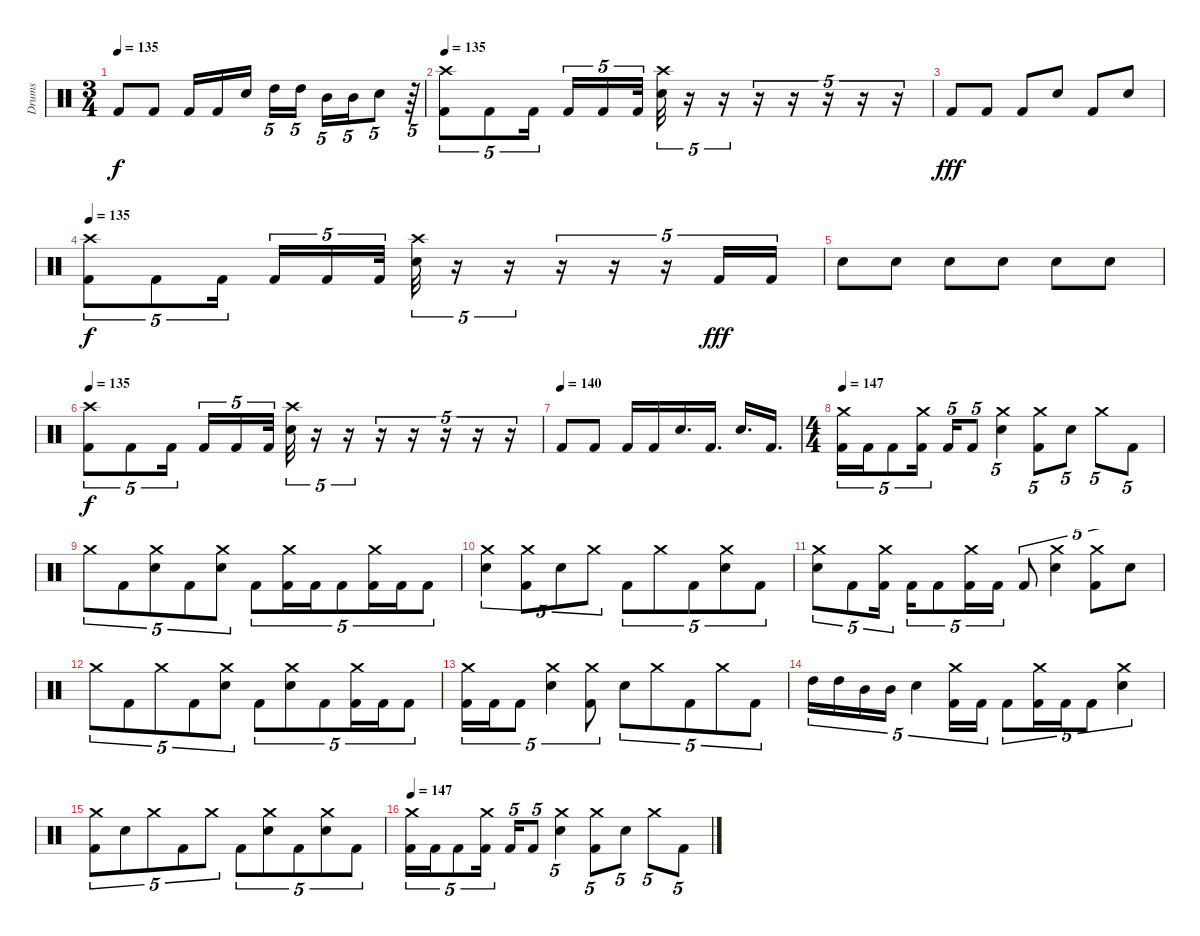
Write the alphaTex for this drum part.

\track ("Drums" "Drums") {instrument percussion}
\staff {score}
\articulation defaults
\ts (3 4)
\tempo 135
\clef neutral
\ks c "Kick (hit) 2".8{dy f} "Kick (hit) 2".8 "Kick (hit) 2".16 "Kick (hit) 2".16 "Electric Snare (hit)".16{beam splitsecondary} "High Tom (hit)".16{tu (5 4)} "High Tom (hit)".16{tu (5 4)} "Mid Tom (hit)".16{tu (5 4)} "Mid Tom (hit)".16{tu (5 4)} "Electric Snare (hit)".8{tu (5 4)}
r.64{tu (5 4)} |
\tempo 135
("Crash high (hit)" "Kick (hit) 2").8{tu (5 4)} "Kick (hit) 2".8{tu (5 4)} "Kick (hit) 2".16{tu (5 4)} "Kick (hit) 2".16{tu (5 4)} "Kick (hit) 2".16{tu (5 4)} "Kick (hit) 2".32{tu (5 4)} ("Crash high (hit)" "Electric Snare (hit)").32{tu (5 4)} r.16{tu (5 4)} r.16{tu (5 4)} r.16{tu (5 4)} r.16{tu (5 4)} r.16{tu (5 4)} r.16{tu (5 4)} r.16{tu (5 4)} |
"Kick (hit) 2".8{dy fff} "Kick (hit) 2".8 "Kick (hit) 2".8 "Electric Snare (hit)".8 "Kick (hit) 2".8 "Electric Snare (hit)".8 |
\tempo 135
("Crash high (hit)" "Kick (hit) 2").8{tu (5 4) dy f} "Kick (hit) 2".8{tu (5 4)} "Kick (hit) 2".16{tu (5 4)} "Kick (hit) 2".16{tu (5 4)} "Kick (hit) 2".16{tu (5 4)} "Kick (hit) 2".32{tu (5 4)} ("Crash high (hit)" "Electric Snare (hit)").32{tu (5 4)} r.16{tu (5 4)} r.16{tu (5 4)} r.16{tu (5 4)} r.16{tu (5 4)} r.16{tu (5 4)} "Kick (hit) 2".16{tu (5 4) dy fff} "Kick (hit) 2".16{tu (5 4)} |
"Electric Snare (hit)".8 "Electric Snare (hit)".8 "Electric Snare (hit)".8 "Electric Snare (hit)".8 "Electric Snare (hit)".8 "Electric Snare (hit)".8 |
\tempo 135
("Crash high (hit)" "Kick (hit) 2").8{tu (5 4) dy f} "Kick (hit) 2".8{tu (5 4)} "Kick (hit) 2".16{tu (5 4)} "Kick (hit) 2".16{tu (5 4)} "Kick (hit) 2".16{tu (5 4)} "Kick (hit) 2".32{tu (5 4)} ("Crash high (hit)" "Electric Snare (hit)").32{tu (5 4)} r.16{tu (5 4)} r.16{tu (5 4)} r.16{tu (5 4)} r.16{tu (5 4)} r.16{tu (5 4)} r.16{tu (5 4)} r.16{tu (5 4)} |
\tempo (140)
"Kick (hit) 2".8 "Kick (hit) 2".8 "Kick (hit) 2".16 "Kick (hit) 2".16 "Electric Snare (hit)".16{d} "Kick (hit) 2".16{d} "Electric Snare (hit)".16{d} "Kick (hit) 2".16{d} |
\ts (4 4)
\tempo 147
("Crash medium (hit)" "Kick (hit) 2").16{tu (5 4)} "Kick (hit) 2".16{tu (5 4)} "Kick (hit) 2".8{tu (5 4)} ("Crash medium (hit)" "Kick (hit) 2").16{tu (5 4)} "Kick (hit) 2".16{tu (5 4)} "Kick (hit) 2".8{tu (5 4)} ("Crash medium (hit)" "Electric Snare (hit)").4{tu (5 4)} ("Crash medium (hit)" "Kick (hit) 2").8{tu (5 4)} "Electric Snare (hit)".8{tu (5 4)} "Crash medium (hit)".8{tu (5 4)} "Kick (hit) 2".8{tu (5 4)} |
"Crash medium (hit)".8{tu (5 4)} "Kick (hit) 2".8{tu (5 4)} ("Crash medium (hit)" "Electric Snare (hit)").8{tu (5 4)} "Kick (hit) 2".8{tu (5 4)} ("Crash medium (hit)" "Electric Snare (hit)").8{tu (5 4)} "Kick (hit) 2".8{tu (5 4)} ("Crash medium (hit)" "Kick (hit) 2").16{tu (5 4)} "Kick (hit) 2".16{tu (5 4)} "Kick (hit) 2".8{tu (5 4)} ("Crash medium (hit)" "Kick (hit) 2").16{tu (5 4)} "Kick (hit) 2".16{tu (5 4)} "Kick (hit) 2".8{tu (5 4)} |
("Crash medium (hit)" "Electric Snare (hit)").4{tu (5 4)} ("Crash medium (hit)" "Kick (hit) 2").8{tu (5 4)} "Electric Snare (hit)".8{tu (5 4)} "Crash medium (hit)".8{tu (5 4)} "Kick (hit) 2".8{tu (5 4)} "Crash medium (hit)".8{tu (5 4)} "Kick (hit) 2".8{tu (5 4)} ("Crash medium (hit)" "Electric Snare (hit)").8{tu (5 4)} "Kick (hit) 2".8{tu (5 4)} |
("Crash medium (hit)" "Electric Snare (hit)").8{tu (5 4)} "Kick (hit) 2".8{tu (5 4)} ("Crash medium (hit)" "Kick (hit) 2").16{tu (5 4)} "Kick (hit) 2".16{tu (5 4)} "Kick (hit) 2".8{tu (5 4)} ("Crash medium (hit)" "Kick (hit) 2").16{tu (5 4)} "Kick (hit) 2".16{tu (5 4)} "Kick (hit) 2".8{tu (5 4)} ("Crash medium (hit)" "Electric Snare (hit)").4{tu (5 4)} ("Crash medium (hit)" "Kick (hit) 2").8{tu (5 4)} "Electric Snare (hit)".8{tu (5 4)} |
"Crash medium (hit)".8{tu (5 4)} "Kick (hit) 2".8{tu (5 4)} "Crash medium (hit)".8{tu (5 4)} "Kick (hit) 2".8{tu (5 4)} ("Crash medium (hit)" "Electric Snare (hit)").8{tu (5 4)} "Kick (hit) 2".8{tu (5 4)} ("Crash medium (hit)" "Electric Snare (hit)").8{tu (5 4)} "Kick (hit) 2".8{tu (5 4)} ("Crash medium (hit)" "Kick (hit) 2").16{tu (5 4)} "Kick (hit) 2".16{tu (5 4)} "Kick (hit) 2".8{tu (5 4)} |
("Crash medium (hit)" "Kick (hit) 2").16{tu (5 4)} "Kick (hit) 2".16{tu (5 4)} "Kick (hit) 2".8{tu (5 4)} ("Crash medium (hit)" "Electric Snare (hit)").4{tu (5 4)} ("Crash medium (hit)" "Kick (hit) 2").8{tu (5 4)} "Electric Snare (hit)".8{tu (5 4)} "Crash medium (hit)".8{tu (5 4)} "Kick (hit) 2".8{tu (5 4)} "Crash medium (hit)".8{tu (5 4)} "Kick (hit) 2".8{tu (5 4)} |
"High Tom (hit)".16{tu (5 4)} "High Tom (hit)".16{tu (5 4)} "Mid Tom (hit)".16{tu (5 4)} "Mid Tom (hit)".16{tu (5 4)} "Electric Snare (hit)".4{tu (5 4)} ("Crash medium (hit)" "Kick (hit) 2").16{tu (5 4)} "Kick (hit) 2".16{tu (5 4)} "Kick (hit) 2".8{tu (5 4)} ("Crash medium (hit)" "Kick (hit) 2").16{tu (5 4)} "Kick (hit) 2".16{tu (5 4)} "Kick (hit) 2".8{tu (5 4)} ("Crash medium (hit)" "Electric Snare (hit)").4{tu (5 4)} |
("Crash medium (hit)" "Kick (hit) 2").8{tu (5 4)} "Electric Snare (hit)".8{tu (5 4)} "Crash medium (hit)".8{tu (5 4)} "Kick (hit) 2".8{tu (5 4)} "Crash medium (hit)".8{tu (5 4)} "Kick (hit) 2".8{tu (5 4)} ("Crash medium (hit)" "Electric Snare (hit)").8{tu (5 4)} "Kick (hit) 2".8{tu (5 4)} ("Crash medium (hit)" "Electric Snare (hit)").8{tu (5 4)} "Kick (hit) 2".8{tu (5 4)} |
\tempo 147
("Crash medium (hit)" "Kick (hit) 2").16{tu (5 4)} "Kick (hit) 2".16{tu (5 4)} "Kick (hit) 2".8{tu (5 4)} ("Crash medium (hit)" "Kick (hit) 2").16{tu (5 4)} "Kick (hit) 2".16{tu (5 4)} "Kick (hit) 2".8{tu (5 4)} ("Crash medium (hit)" "Electric Snare (hit)").4{tu (5 4)} ("Crash medium (hit)" "Kick (hit) 2").8{tu (5 4)} "Electric Snare (hit)".8{tu (5 4)} "Crash medium (hit)".8{tu (5 4)} "Kick (hit) 2".8{tu (5 4)}
